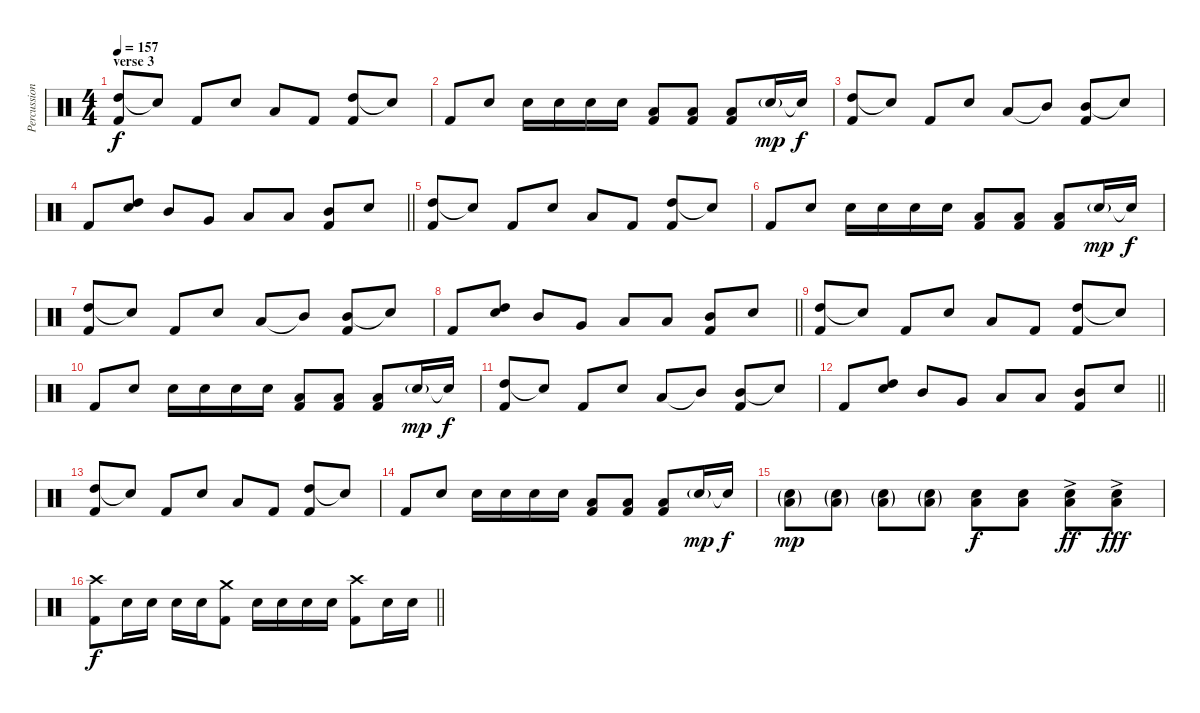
\track ("Percussion" "Percussion") {instrument percussion}
\staff {score}
\articulation defaults
\ts (4 4)
\section ("" "verse 3")
\tempo 157
\clef neutral
\ks c
("High Tom (hit)" "Kick (hit) 2").8{dy f} "Snare (hit)"{t}.8 "Kick (hit) 2".8 "Electric Snare (hit)".8 "Low Tom (hit)".8 "Kick (hit) 2".8 ("High Tom (hit)" "Kick (hit) 2").8 "Snare (hit)"{t}.8 |
"Kick (hit) 2".8 "Electric Snare (hit)".8 "Electric Snare (hit)".16 "Electric Snare (hit)".16 "Electric Snare (hit)".16 "Electric Snare (hit)".16 ("Low Tom (hit)" "Kick (hit) 2").8 ("Low Tom (hit)" "Kick (hit) 2").8 ("Low Tom (hit)" "Kick (hit) 2").8 "Electric Snare (hit)"{g}.16{dy mp} "Snare (hit)"{t}.16{dy f} |
("High Tom (hit)" "Kick (hit) 2").8 "Snare (hit)"{t}.8 "Kick (hit) 2".8 "Electric Snare (hit)".8 "Low Tom (hit)".8 "Mid Tom (hit)"{t}.8 ("Mid Tom (hit)" "Kick (hit) 2").8 "Snare (hit)"{t}.8 |
\barLineRight lightlight "Kick (hit) 2".8
("High Tom (hit)" "Electric Snare (hit)").8 "Mid Tom (hit)".8 "Very Low Tom (hit)".8 "Low Tom (hit)".8 "Low Floor Tom (hit)".8 ("Mid Tom (hit)" "Kick (hit) 2").8 "Electric Snare (hit)".8 |
("High Tom (hit)" "Kick (hit) 2").8 "Snare (hit)"{t}.8 "Kick (hit) 2".8 "Electric Snare (hit)".8 "Low Tom (hit)".8 "Kick (hit) 2".8 ("High Tom (hit)" "Kick (hit) 2").8 "Snare (hit)"{t}.8 |
"Kick (hit) 2".8 "Electric Snare (hit)".8 "Electric Snare (hit)".16 "Electric Snare (hit)".16 "Electric Snare (hit)".16 "Electric Snare (hit)".16 ("Low Tom (hit)" "Kick (hit) 2").8 ("Low Tom (hit)" "Kick (hit) 2").8 ("Low Tom (hit)" "Kick (hit) 2").8 "Electric Snare (hit)"{g}.16{dy mp} "Snare (hit)"{t}.16{dy f} |
("High Tom (hit)" "Kick (hit) 2").8 "Snare (hit)"{t}.8 "Kick (hit) 2".8 "Electric Snare (hit)".8 "Low Tom (hit)".8 "Mid Tom (hit)"{t}.8 ("Mid Tom (hit)" "Kick (hit) 2").8 "Snare (hit)"{t}.8 |
\barLineRight lightlight "Kick (hit) 2".8
("High Tom (hit)" "Electric Snare (hit)").8 "Mid Tom (hit)".8 "Very Low Tom (hit)".8 "Low Tom (hit)".8 "Low Floor Tom (hit)".8 ("Mid Tom (hit)" "Kick (hit) 2").8 "Electric Snare (hit)".8 |
("High Tom (hit)" "Kick (hit) 2").8 "Snare (hit)"{t}.8 "Kick (hit) 2".8 "Electric Snare (hit)".8 "Low Tom (hit)".8 "Kick (hit) 2".8 ("High Tom (hit)" "Kick (hit) 2").8 "Snare (hit)"{t}.8 |
"Kick (hit) 2".8 "Electric Snare (hit)".8 "Electric Snare (hit)".16 "Electric Snare (hit)".16 "Electric Snare (hit)".16 "Electric Snare (hit)".16 ("Low Tom (hit)" "Kick (hit) 2").8 ("Low Tom (hit)" "Kick (hit) 2").8 ("Low Tom (hit)" "Kick (hit) 2").8 "Electric Snare (hit)"{g}.16{dy mp} "Snare (hit)"{t}.16{dy f} |
("High Tom (hit)" "Kick (hit) 2").8 "Snare (hit)"{t}.8 "Kick (hit) 2".8 "Electric Snare (hit)".8 "Low Tom (hit)".8 "Mid Tom (hit)"{t}.8 ("Mid Tom (hit)" "Kick (hit) 2").8 "Snare (hit)"{t}.8 |
\barLineRight lightlight "Kick (hit) 2".8
("High Tom (hit)" "Electric Snare (hit)").8 "Mid Tom (hit)".8 "Very Low Tom (hit)".8 "Low Tom (hit)".8 "Low Floor Tom (hit)".8 ("Mid Tom (hit)" "Kick (hit) 2").8 "Electric Snare (hit)".8 |
("High Tom (hit)" "Kick (hit) 2").8 "Snare (hit)"{t}.8 "Kick (hit) 2".8 "Electric Snare (hit)".8 "Low Tom (hit)".8 "Kick (hit) 2".8 ("High Tom (hit)" "Kick (hit) 2").8 "Snare (hit)"{t}.8 |
"Kick (hit) 2".8 "Electric Snare (hit)".8 "Electric Snare (hit)".16 "Electric Snare (hit)".16 "Electric Snare (hit)".16 "Electric Snare (hit)".16 ("Low Tom (hit)" "Kick (hit) 2").8 ("Low Tom (hit)" "Kick (hit) 2").8 ("Low Tom (hit)" "Kick (hit) 2").8 "Electric Snare (hit)"{g}.16{dy mp} "Snare (hit)"{t}.16{dy f} |
("Low Floor Tom (hit)"{g} "Electric Snare (hit)"{g}).8{dy mp} ("Low Floor Tom (hit)"{g} "Electric Snare (hit)"{g}).8 ("Low Floor Tom (hit)"{g} "Electric Snare (hit)"{g}).8 ("Low Floor Tom (hit)"{g} "Electric Snare (hit)"{g}).8 ("Low Floor Tom (hit)" "Electric Snare (hit)").8{dy f} ("Low Floor Tom (hit)" "Electric Snare (hit)").8 ("Low Floor Tom (hit)"{ac} "Electric Snare (hit)"{ac}).8{dy ff} ("Low Floor Tom (hit)"{ac} "Electric Snare (hit)"{ac}).8{dy fff} |
\barLineRight lightlight
("Crash high (hit)" "Kick (hit) 2").8{dy f} "Electric Snare (hit)".16 "Electric Snare (hit)".16 "Electric Snare (hit)".16 "Electric Snare (hit)".16 ("Crash medium (hit)" "Kick (hit) 2").8 "Electric Snare (hit)".16 "Electric Snare (hit)".16 "Electric Snare (hit)".16 "Electric Snare (hit)".16 ("Crash high (hit)" "Kick (hit) 2").8 "Electric Snare (hit)".16 "Electric Snare (hit)".16
